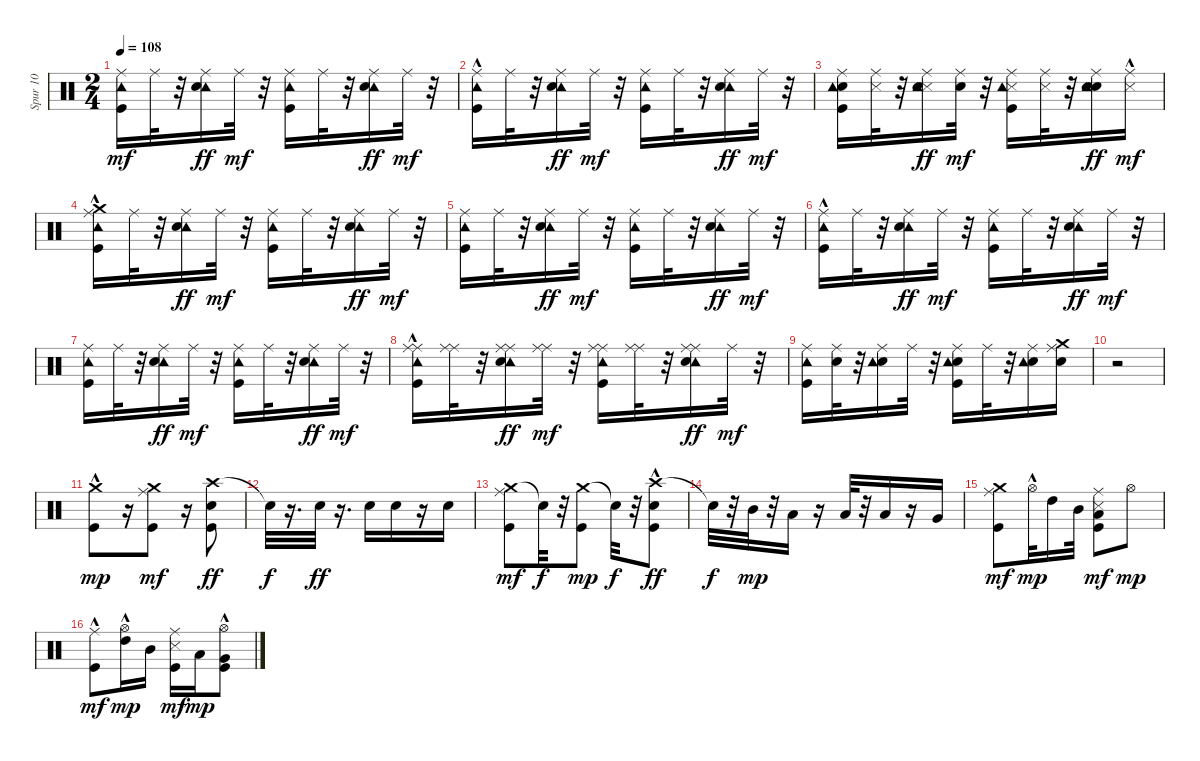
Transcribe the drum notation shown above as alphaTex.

\track ("Spur 10" "Spur 10") {instrument percussion}
\staff {score}
\articulation defaults
\ts (2 4)
\tempo 108
\clef neutral
\ks c
("Tambourine (hit)" "Ride (middle)" "Kick (hit)").16{dy mf} "Ride (middle)".32 r.32 ("Tambourine (hit)" "Ride (middle)" "Electric Snare (hit)").16{dy ff} "Ride (middle)".32{dy mf} r.32 ("Tambourine (hit)" "Ride (middle)" "Kick (hit)").16 "Ride (middle)".32 r.32 ("Tambourine (hit)" "Ride (middle)" "Electric Snare (hit)").16{dy ff} "Ride (middle)".32{dy mf} r.32 |
("Tambourine (hit)" "Ride (middle)" "Kick (hit)"{hac}).16 "Ride (middle)".32 r.32 ("Tambourine (hit)" "Ride (middle)" "Electric Snare (hit)").16{dy ff} "Ride (middle)".32{dy mf} r.32 ("Tambourine (hit)" "Ride (middle)" "Kick (hit)").16 "Ride (middle)".32 r.32 ("Tambourine (hit)" "Ride (middle)" "Electric Snare (hit)").16{dy ff} "Ride (middle)".32{dy mf} r.32 |
("Electric Snare (hit)" "Tambourine (hit)" "Ride (middle)" "Kick (hit)").16 ("Snare (side stick) 3" "Ride (middle)").32 r.32 ("Snare (side stick) 3" "Tambourine (hit)" "Ride (middle)" "Electric Snare (hit)").16{dy ff} ("Electric Snare (hit)" "Ride (middle)").32{dy mf} r.32 ("Snare (side stick) 3" "Tambourine (hit)" "Ride (middle)" "Kick (hit)").16 ("Snare (side stick) 3" "Ride (middle)").32 r.32 ("Electric Snare (hit)" "Tambourine (hit)" "Ride (middle)" "Electric Snare (hit)").16{dy ff} ("Snare (side stick) 3"{hac} "Ride (middle)").16{dy mf} |
("Crash medium (hit)" "Tambourine (hit)" "Ride (middle)" "Kick (hit)"{hac}).16 "Ride (middle)".32 r.32 ("Tambourine (hit)" "Ride (middle)" "Electric Snare (hit)").16{dy ff} "Ride (middle)".32{dy mf} r.32 ("Tambourine (hit)" "Ride (middle)" "Kick (hit)").16 "Ride (middle)".32 r.32 ("Tambourine (hit)" "Ride (middle)" "Electric Snare (hit)").16{dy ff} "Ride (middle)".32{dy mf} r.32 |
("Tambourine (hit)" "Ride (middle)" "Kick (hit)").16 "Ride (middle)".32 r.32 ("Tambourine (hit)" "Ride (middle)" "Electric Snare (hit)").16{dy ff} "Ride (middle)".32{dy mf} r.32 ("Tambourine (hit)" "Ride (middle)" "Kick (hit)").16 "Ride (middle)".32 r.32 ("Tambourine (hit)" "Ride (middle)" "Electric Snare (hit)").16{dy ff} "Ride (middle)".32{dy mf} r.32 |
("Tambourine (hit)" "Ride (middle)" "Kick (hit)"{hac}).16 "Ride (middle)".32 r.32 ("Tambourine (hit)" "Ride (middle)" "Electric Snare (hit)").16{dy ff} "Ride (middle)".32{dy mf} r.32 ("Tambourine (hit)" "Ride (middle)" "Kick (hit)").16 "Ride (middle)".32 r.32 ("Tambourine (hit)" "Ride (middle)" "Electric Snare (hit)").16{dy ff} "Ride (middle)".32{dy mf} r.32 |
("Tambourine (hit)" "Ride (middle)" "Kick (hit)").16 "Ride (middle)".32 r.32 ("Tambourine (hit)" "Ride (middle)" "Electric Snare (hit)").16{dy ff} "Ride (middle)".32{dy mf} r.32 ("Tambourine (hit)" "Ride (middle)" "Kick (hit)").16 "Ride (middle)".32 r.32 ("Tambourine (hit)" "Ride (middle)" "Electric Snare (hit)").16{dy ff} "Ride (middle)".32{dy mf} r.32 |
("Ride (middle)" "Tambourine (hit)" "Ride (middle)" "Kick (hit)"{hac}).16 ("Ride (middle)" "Ride (middle)").32 r.32 ("Ride (middle)" "Tambourine (hit)" "Ride (middle)" "Electric Snare (hit)").16{dy ff} ("Ride (middle)" "Ride (middle)").32{dy mf} r.32 ("Ride (middle)" "Tambourine (hit)" "Ride (middle)" "Kick (hit)").16 ("Ride (middle)" "Ride (middle)").32 r.32 ("Ride (middle)" "Tambourine (hit)" "Ride (middle)" "Electric Snare (hit)").16{dy ff} "Ride (middle)".32{dy mf} r.32 |
("Tambourine (hit)" "Ride (middle)" "Kick (hit)").16 ("Electric Snare (hit)" "Ride (middle)").32 r.32 ("Electric Snare (hit)" "Tambourine (hit)" "Ride (middle)").16 "Ride (middle)".32 r.32 ("Electric Snare (hit)" "Tambourine (hit)" "Ride (middle)" "Kick (hit)").16 "Ride (middle)".32 r.32 ("Electric Snare (hit)" "Tambourine (hit)" "Ride (middle)").16 ("Electric Snare (hit)" "Crash medium (hit)" "Ride (middle)").16 |
r.2 |
("Crash medium (hit)"{hac} "Kick (hit)").8{dy mp} r.16 ("Crash medium (hit)" "Ride (middle)" "Kick (hit)").8{dy mf} r.16 ("Crash high (hit)" "Electric Snare (hit)" "Kick (hit)").8{dy ff} |
"Snare (hit)"{t}.32{dy f} r.16{d} "Electric Snare (hit)".32{dy ff} r.16{d} "Electric Snare (hit)".16 "Electric Snare (hit)".16 r.16 "Electric Snare (hit)".16 |
("Crash medium (hit)" "Ride (middle)" "Kick (hit)").8{dy mf} "Snare (hit)"{t}.32{dy f} r.32 ("Crash medium (hit)" "Kick (hit)").8{dy mp} "Snare (hit)"{t}.32{dy f} r.32 ("Crash high (hit)" "Kick (hit)"{hac} "Electric Snare (hit)"{hac}).8{dy ff} |
"Snare (hit)"{t}.32{dy f} r.32 "Mid Tom (hit)".32{dy mp} r.32 "Low Tom (hit)".16 r.16 "Low Tom (hit)".32 r.32 "Low Tom (hit)".16 r.16 "Very Low Tom (hit)".16 |
("Crash medium (hit)" "Ride (middle)" "Kick (hit)").8{dy mf} "Hi-Hat (open)"{hac}.32{dy mp} "High Tom (hit)".16 "Mid Tom (hit)".32 ("Low Tom (hit)" "Snare (side stick) 3" "Ride (middle)" "Kick (hit)").8{dy mf} "Hi-Hat (open)".8{dy mp} |
("Ride (middle)" "Kick (hit)"{hac}).8{dy mf} ("High Tom (hit)"{hac} "Hi-Hat (open)").16{dy mp} "Mid Tom (hit)".16 ("Snare (side stick) 3" "Ride (middle)" "Kick (hit)").16{dy mf} "Low Tom (hit)".16{dy mp} ("Very Low Tom (hit)"{hac} "Hi-Hat (open)" "Kick (hit)").8
